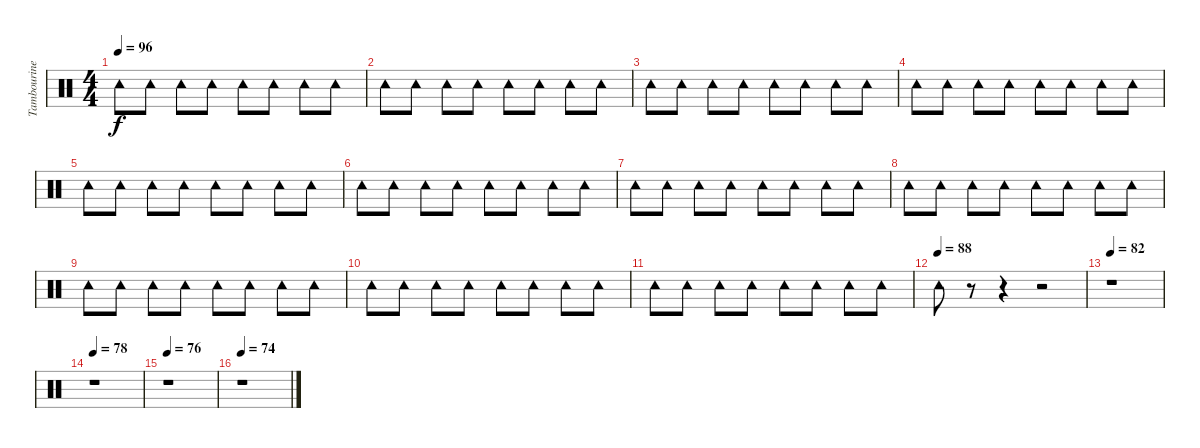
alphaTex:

\track ("Tambourine" "Tambourine") {instrument percussion}
\staff {score}
\articulation defaults
\ts (4 4)
\tempo 96
\clef neutral
\ks c "Tambourine (hit)".8{dy f} "Tambourine (hit)".8 "Tambourine (hit)".8 "Tambourine (hit)".8 "Tambourine (hit)".8 "Tambourine (hit)".8 "Tambourine (hit)".8 "Tambourine (hit)".8
|
"Tambourine (hit)".8 "Tambourine (hit)".8 "Tambourine (hit)".8 "Tambourine (hit)".8 "Tambourine (hit)".8 "Tambourine (hit)".8 "Tambourine (hit)".8 "Tambourine (hit)".8 |
"Tambourine (hit)".8 "Tambourine (hit)".8 "Tambourine (hit)".8 "Tambourine (hit)".8 "Tambourine (hit)".8 "Tambourine (hit)".8 "Tambourine (hit)".8 "Tambourine (hit)".8 |
"Tambourine (hit)".8 "Tambourine (hit)".8 "Tambourine (hit)".8 "Tambourine (hit)".8 "Tambourine (hit)".8 "Tambourine (hit)".8 "Tambourine (hit)".8 "Tambourine (hit)".8 |
"Tambourine (hit)".8 "Tambourine (hit)".8 "Tambourine (hit)".8 "Tambourine (hit)".8 "Tambourine (hit)".8 "Tambourine (hit)".8 "Tambourine (hit)".8 "Tambourine (hit)".8 |
"Tambourine (hit)".8 "Tambourine (hit)".8 "Tambourine (hit)".8 "Tambourine (hit)".8 "Tambourine (hit)".8 "Tambourine (hit)".8 "Tambourine (hit)".8 "Tambourine (hit)".8 |
"Tambourine (hit)".8 "Tambourine (hit)".8 "Tambourine (hit)".8 "Tambourine (hit)".8 "Tambourine (hit)".8 "Tambourine (hit)".8 "Tambourine (hit)".8 "Tambourine (hit)".8 |
"Tambourine (hit)".8 "Tambourine (hit)".8 "Tambourine (hit)".8 "Tambourine (hit)".8 "Tambourine (hit)".8 "Tambourine (hit)".8 "Tambourine (hit)".8 "Tambourine (hit)".8 |
"Tambourine (hit)".8 "Tambourine (hit)".8 "Tambourine (hit)".8 "Tambourine (hit)".8 "Tambourine (hit)".8 "Tambourine (hit)".8 "Tambourine (hit)".8 "Tambourine (hit)".8 |
"Tambourine (hit)".8 "Tambourine (hit)".8 "Tambourine (hit)".8 "Tambourine (hit)".8 "Tambourine (hit)".8 "Tambourine (hit)".8 "Tambourine (hit)".8 "Tambourine (hit)".8 |
"Tambourine (hit)".8 "Tambourine (hit)".8 "Tambourine (hit)".8 "Tambourine (hit)".8 "Tambourine (hit)".8 "Tambourine (hit)".8 "Tambourine (hit)".8 "Tambourine (hit)".8 |
\tempo (88)
"Tambourine (hit)".8 r.8 r.4 r.2 |
\tempo 82
r.1 |
\tempo 78
r.1 |
\tempo 76
r.1 |
\tempo 74
r.1
